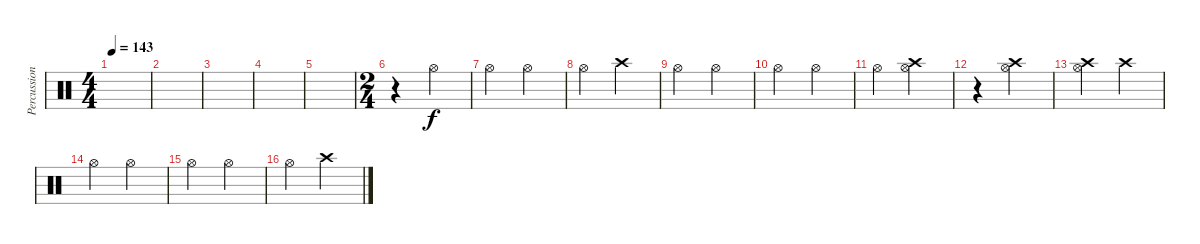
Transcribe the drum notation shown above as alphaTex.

\track ("Percussion2" "Percussion") {instrument percussion}
\staff {score}
\articulation defaults
\ts (4 4)
\tempo 143
\clef neutral
\ks c
|
|
|
|
|
\ts (2 4)
r.4 "Hi-Hat (open)".4 |
"Hi-Hat (open)".4 "Hi-Hat (open)".4 |
"Hi-Hat (open)".4 "Crash high (hit)".4 |
"Hi-Hat (open)".4 "Hi-Hat (open)".4 |
"Hi-Hat (open)".4 "Hi-Hat (open)".4 |
"Hi-Hat (open)".4 ("Crash high (hit)" "Hi-Hat (open)").4 |
r.4 ("Crash high (hit)" "Hi-Hat (open)").4 |
("Crash high (hit)" "Hi-Hat (open)").4 "Crash high (hit)".4 |
"Hi-Hat (open)".4 "Hi-Hat (open)".4 |
"Hi-Hat (open)".4 "Hi-Hat (open)".4 |
"Hi-Hat (open)".4 "Crash high (hit)".4
